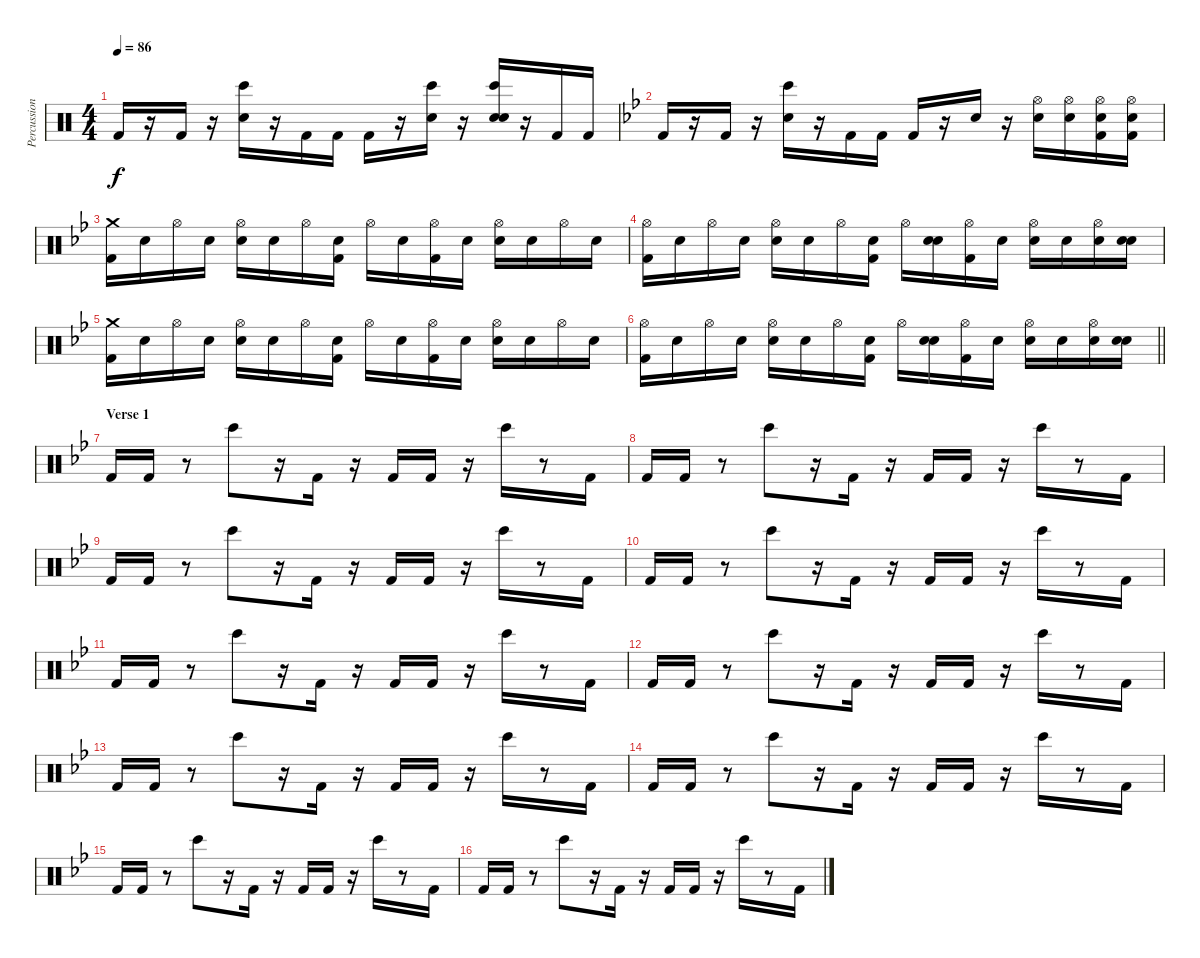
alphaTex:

\track ("Percussion" "Percussion") {instrument percussion}
\staff {score}
\articulation defaults
\ts (4 4)
\tempo 86
\clef neutral
\ks c "Kick (hit) 2".16{dy f}
r.16 "Kick (hit) 2".16 r.16 ("Snare (hit) 2" "Bongo High (hit)").16 r.16 "Kick (hit) 2".16 "Kick (hit) 2".16 "Kick (hit) 2".16 r.16 ("Bongo High (hit)" "Snare (hit) 2").16 r.16 ("Hand Clap (hit)" "Bongo High (hit)" "Snare (hit) 2").16 r.16 "Kick (hit) 2".16 "Kick (hit) 2".16 |
\ks bb "Kick (hit) 2".16
r.16 "Kick (hit) 2".16 r.16 ("Snare (hit) 2" "Bongo High (hit)").16 r.16 "Kick (hit) 2".16 "Kick (hit) 2".16 "Kick (hit) 2".16 r.16 "Snare (hit) 2".16 r.16 ("Hi-Hat (open)" "Snare (hit) 2").16 ("Hi-Hat (open)" "Snare (hit) 2").16 ("Hi-Hat (open)" "Snare (hit) 2" "Kick (hit) 2").16 ("Hi-Hat (open)" "Snare (hit) 2" "Kick (hit) 2").16 |
\ks gminor
("Crash medium (hit)" "Kick (hit) 2").16 "Snare (hit)".16 "Hi-Hat (open)".16 "Snare (hit)".16 ("Hi-Hat (open)" "Electric Snare (hit)").16 "Snare (hit)".16 "Hi-Hat (open)".16 ("Snare (hit)" "Kick (hit) 2").16 "Hi-Hat (open)".16 "Snare (hit)".16 ("Hi-Hat (open)" "Kick (hit) 2").16 "Snare (hit)".16 ("Hi-Hat (open)" "Electric Snare (hit)").16 "Snare (hit)".16 "Hi-Hat (open)".16 "Snare (hit)".16 |
("Hi-Hat (open)" "Kick (hit) 2").16 "Snare (hit)".16 "Hi-Hat (open)".16 "Snare (hit)".16 ("Hi-Hat (open)" "Electric Snare (hit)").16 "Snare (hit)".16 "Hi-Hat (open)".16 ("Snare (hit)" "Kick (hit) 2").16 "Hi-Hat (open)".16 ("Snare (hit)" "Electric Snare (hit)").16 ("Hi-Hat (open)" "Kick (hit) 2").16 "Snare (hit)".16 ("Hi-Hat (open)" "Electric Snare (hit)").16 "Snare (hit)".16 ("Hi-Hat (open)" "Electric Snare (hit)").16 ("Snare (hit)" "Electric Snare (hit)").16 |
("Crash medium (hit)" "Kick (hit) 2").16 "Snare (hit)".16 "Hi-Hat (open)".16 "Snare (hit)".16 ("Hi-Hat (open)" "Electric Snare (hit)").16 "Snare (hit)".16 "Hi-Hat (open)".16 ("Snare (hit)" "Kick (hit) 2").16 "Hi-Hat (open)".16 "Snare (hit)".16 ("Hi-Hat (open)" "Kick (hit) 2").16 "Snare (hit)".16 ("Hi-Hat (open)" "Electric Snare (hit)").16 "Snare (hit)".16 "Hi-Hat (open)".16 "Snare (hit)".16 |
\barLineRight lightlight
("Hi-Hat (open)" "Kick (hit) 2").16 "Snare (hit)".16 "Hi-Hat (open)".16 "Snare (hit)".16 ("Hi-Hat (open)" "Electric Snare (hit)").16 "Snare (hit)".16 "Hi-Hat (open)".16 ("Snare (hit)" "Kick (hit) 2").16 "Hi-Hat (open)".16 ("Snare (hit)" "Electric Snare (hit)").16 ("Hi-Hat (open)" "Kick (hit) 2").16 "Snare (hit)".16 ("Hi-Hat (open)" "Electric Snare (hit)").16 "Snare (hit)".16 ("Hi-Hat (open)" "Electric Snare (hit)").16 ("Snare (hit)" "Electric Snare (hit)").16 |
\section ("" "Verse 1")
"Kick (hit) 2".16{volume 9} "Kick (hit) 2".16 r.8 "Bongo High (hit)".8 r.16 "Kick (hit) 2".16 r.16 "Kick (hit) 2".16 "Kick (hit) 2".16 r.16 "Bongo High (hit)".16 r.8 "Kick (hit) 2".16 |
"Kick (hit) 2".16 "Kick (hit) 2".16 r.8 "Bongo High (hit)".8 r.16 "Kick (hit) 2".16 r.16 "Kick (hit) 2".16 "Kick (hit) 2".16 r.16 "Bongo High (hit)".16 r.8 "Kick (hit) 2".16 |
"Kick (hit) 2".16 "Kick (hit) 2".16 r.8 "Bongo High (hit)".8 r.16 "Kick (hit) 2".16 r.16 "Kick (hit) 2".16 "Kick (hit) 2".16 r.16 "Bongo High (hit)".16 r.8 "Kick (hit) 2".16 |
"Kick (hit) 2".16 "Kick (hit) 2".16 r.8 "Bongo High (hit)".8 r.16 "Kick (hit) 2".16 r.16 "Kick (hit) 2".16 "Kick (hit) 2".16 r.16 "Bongo High (hit)".16 r.8 "Kick (hit) 2".16 |
"Kick (hit) 2".16 "Kick (hit) 2".16 r.8 "Bongo High (hit)".8 r.16 "Kick (hit) 2".16 r.16 "Kick (hit) 2".16 "Kick (hit) 2".16 r.16 "Bongo High (hit)".16 r.8 "Kick (hit) 2".16 |
"Kick (hit) 2".16 "Kick (hit) 2".16 r.8 "Bongo High (hit)".8 r.16 "Kick (hit) 2".16 r.16 "Kick (hit) 2".16 "Kick (hit) 2".16 r.16 "Bongo High (hit)".16 r.8 "Kick (hit) 2".16 |
"Kick (hit) 2".16 "Kick (hit) 2".16 r.8 "Bongo High (hit)".8 r.16 "Kick (hit) 2".16 r.16 "Kick (hit) 2".16 "Kick (hit) 2".16 r.16 "Bongo High (hit)".16 r.8 "Kick (hit) 2".16 |
"Kick (hit) 2".16 "Kick (hit) 2".16 r.8 "Bongo High (hit)".8 r.16 "Kick (hit) 2".16 r.16 "Kick (hit) 2".16 "Kick (hit) 2".16 r.16 "Bongo High (hit)".16 r.8 "Kick (hit) 2".16 |
"Kick (hit) 2".16 "Kick (hit) 2".16 r.8 "Bongo High (hit)".8 r.16 "Kick (hit) 2".16 r.16 "Kick (hit) 2".16 "Kick (hit) 2".16 r.16 "Bongo High (hit)".16 r.8 "Kick (hit) 2".16 |
"Kick (hit) 2".16 "Kick (hit) 2".16 r.8 "Bongo High (hit)".8 r.16 "Kick (hit) 2".16 r.16 "Kick (hit) 2".16 "Kick (hit) 2".16 r.16 "Bongo High (hit)".16 r.8 "Kick (hit) 2".16
